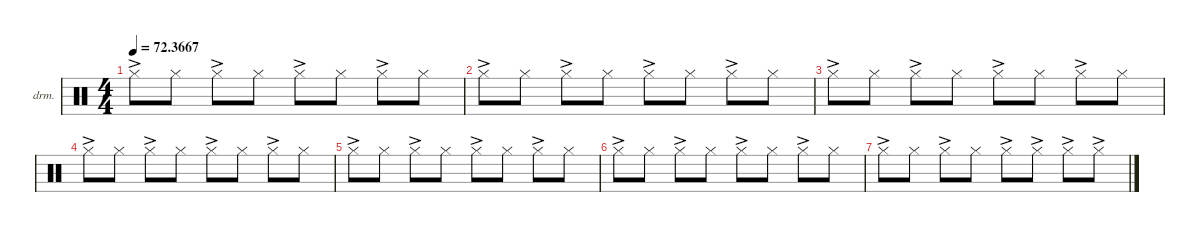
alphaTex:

\defaultSystemsLayout 4
\hideDynamics
\bracketExtendMode nobrackets
\firstSystemTrackNameOrientation horizontal
\otherSystemsTrackNameOrientation horizontal
\track ("Drumkit" "drm.") {instrument percussion}
\staff {score}
\articulation defaults
\ts (4 4)
\tempo
72.3667
\accidentals auto
\clef neutral
\ottava regular
\simile none
\ks c "Hi-Hat (closed)"{ac}.8{dy mf beam Down} "Hi-Hat (closed)".8{beam Down} "Hi-Hat (closed)"{ac}.8{beam Down} "Hi-Hat (closed)".8{beam Down} "Hi-Hat (closed)"{ac}.8{beam Down} "Hi-Hat (closed)".8{beam Down} "Hi-Hat (closed)"{ac}.8{beam Down} "Hi-Hat (closed)".8{beam Down}
|
"Hi-Hat (closed)"{ac}.8{beam Down} "Hi-Hat (closed)".8{beam Down} "Hi-Hat (closed)"{ac}.8{beam Down} "Hi-Hat (closed)".8{beam Down} "Hi-Hat (closed)"{ac}.8{beam Down} "Hi-Hat (closed)".8{beam Down} "Hi-Hat (closed)"{ac}.8{beam Down} "Hi-Hat (closed)".8{beam Down} |
"Hi-Hat (closed)"{ac}.8{beam Down} "Hi-Hat (closed)".8{beam Down} "Hi-Hat (closed)"{ac}.8{beam Down} "Hi-Hat (closed)".8{beam Down} "Hi-Hat (closed)"{ac}.8{beam Down} "Hi-Hat (closed)".8{beam Down} "Hi-Hat (closed)"{ac}.8{beam Down} "Hi-Hat (closed)".8{beam Down} |
"Hi-Hat (closed)"{ac}.8{beam Down} "Hi-Hat (closed)".8{beam Down} "Hi-Hat (closed)"{ac}.8{beam Down} "Hi-Hat (closed)".8{beam Down} "Hi-Hat (closed)"{ac}.8{beam Down} "Hi-Hat (closed)".8{beam Down} "Hi-Hat (closed)"{ac}.8{beam Down} "Hi-Hat (closed)".8{beam Down} |
"Hi-Hat (closed)"{ac}.8{beam Down} "Hi-Hat (closed)".8{beam Down} "Hi-Hat (closed)"{ac}.8{beam Down} "Hi-Hat (closed)".8{beam Down} "Hi-Hat (closed)"{ac}.8{beam Down} "Hi-Hat (closed)".8{beam Down} "Hi-Hat (closed)"{ac}.8{beam Down} "Hi-Hat (closed)".8{beam Down} |
"Hi-Hat (closed)"{ac}.8{beam Down} "Hi-Hat (closed)".8{beam Down} "Hi-Hat (closed)"{ac}.8{beam Down} "Hi-Hat (closed)".8{beam Down} "Hi-Hat (closed)"{ac}.8{beam Down} "Hi-Hat (closed)".8{beam Down} "Hi-Hat (closed)"{ac}.8{beam Down} "Hi-Hat (closed)".8{beam Down} |
"Hi-Hat (closed)"{ac}.8{beam Down} "Hi-Hat (closed)".8{beam Down} "Hi-Hat (closed)"{ac}.8{beam Down} "Hi-Hat (closed)".8{beam Down} "Hi-Hat (closed)"{ac}.8{beam Down} "Hi-Hat (closed)"{ac}.8{beam Down} "Hi-Hat (closed)"{ac}.8{beam Down} "Hi-Hat (closed)"{ac}.8{beam Down}
